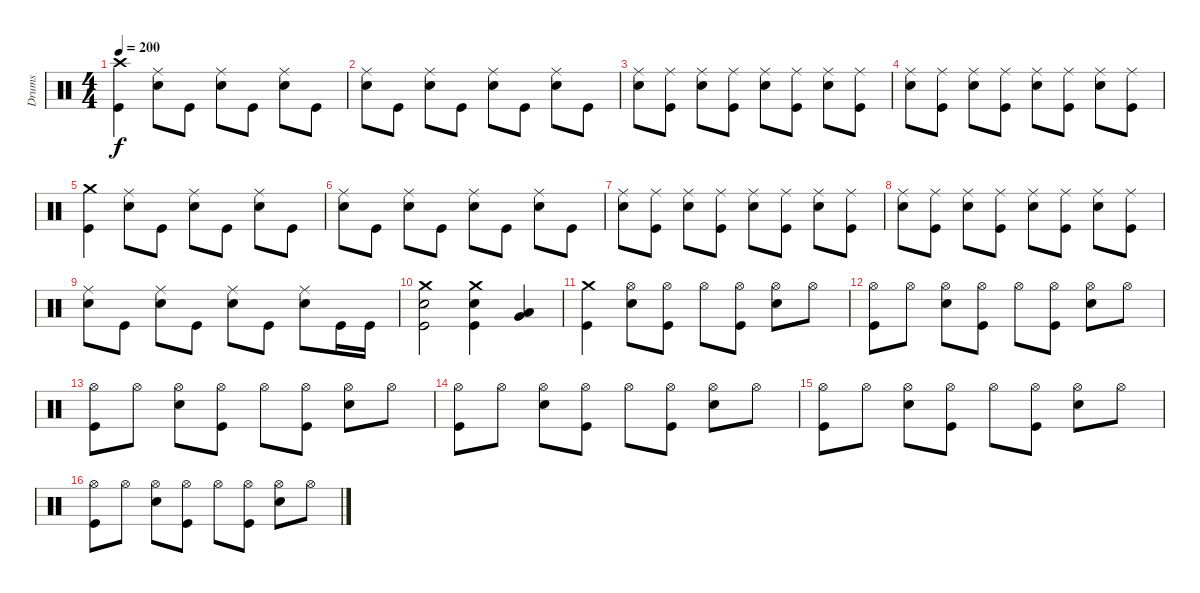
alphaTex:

\track ("Drums" "Drums") {instrument percussion}
\staff {score}
\articulation defaults
\ts (4 4)
\tempo 200
\clef neutral
\ks c
("Crash high (hit)" "Kick (hit)").4{dy f} ("Ride (middle)" "Snare (hit) 2").8 "Kick (hit)".8 ("Ride (middle)" "Snare (hit) 2").8 "Kick (hit)".8 ("Ride (middle)" "Snare (hit) 2").8 "Kick (hit)".8 |
("Ride (middle)" "Snare (hit) 2").8 "Kick (hit)".8 ("Ride (middle)" "Snare (hit) 2").8 "Kick (hit)".8 ("Ride (middle)" "Snare (hit) 2").8 "Kick (hit)".8 ("Ride (middle)" "Snare (hit) 2").8 "Kick (hit)".8 |
("Ride (middle)" "Snare (hit) 2").8 ("Ride (middle)" "Kick (hit)").8 ("Ride (middle)" "Snare (hit) 2").8 ("Ride (middle)" "Kick (hit)").8 ("Ride (middle)" "Snare (hit) 2").8 ("Ride (middle)" "Kick (hit)").8 ("Ride (middle)" "Snare (hit) 2").8 ("Ride (middle)" "Kick (hit)").8 |
("Ride (middle)" "Snare (hit) 2").8 ("Ride (middle)" "Kick (hit)").8 ("Ride (middle)" "Snare (hit) 2").8 ("Ride (middle)" "Kick (hit)").8 ("Ride (middle)" "Snare (hit) 2").8 ("Ride (middle)" "Kick (hit)").8 ("Ride (middle)" "Snare (hit) 2").8 ("Ride (middle)" "Kick (hit)").8 |
("Crash medium (hit)" "Kick (hit)").4 ("Ride (middle)" "Snare (hit) 2").8 "Kick (hit)".8 ("Ride (middle)" "Snare (hit) 2").8 "Kick (hit)".8 ("Ride (middle)" "Snare (hit) 2").8 "Kick (hit)".8 |
("Ride (middle)" "Snare (hit) 2").8 "Kick (hit)".8 ("Ride (middle)" "Snare (hit) 2").8 "Kick (hit)".8 ("Ride (middle)" "Snare (hit) 2").8 "Kick (hit)".8 ("Ride (middle)" "Snare (hit) 2").8 "Kick (hit)".8 |
("Ride (middle)" "Snare (hit) 2").8 ("Ride (middle)" "Kick (hit)").8 ("Ride (middle)" "Snare (hit) 2").8 ("Ride (middle)" "Kick (hit)").8 ("Ride (middle)" "Snare (hit) 2").8 ("Ride (middle)" "Kick (hit)").8 ("Ride (middle)" "Snare (hit) 2").8 ("Ride (middle)" "Kick (hit)").8 |
("Ride (middle)" "Snare (hit) 2").8 ("Ride (middle)" "Kick (hit)").8 ("Ride (middle)" "Snare (hit) 2").8 ("Ride (middle)" "Kick (hit)").8 ("Ride (middle)" "Snare (hit) 2").8 ("Ride (middle)" "Kick (hit)").8 ("Ride (middle)" "Snare (hit) 2").8 ("Ride (middle)" "Kick (hit)").8 |
("Ride (middle)" "Snare (hit) 2").8 "Kick (hit)".8 ("Ride (middle)" "Snare (hit) 2").8 "Kick (hit)".8 ("Ride (middle)" "Snare (hit) 2").8 "Kick (hit)".8 ("Ride (middle)" "Snare (hit) 2").8 "Kick (hit)".16 "Kick (hit)".16 |
("Crash medium (hit)" "Snare (hit) 2" "Kick (hit)").2 ("Crash medium (hit)" "Snare (hit) 2" "Kick (hit)").4 ("Very Low Tom (hit)" "Low Floor Tom (hit)").4 |
("Crash medium (hit)" "Kick (hit)").4 ("Hi-Hat (open)" "Snare (hit) 2").8 ("Hi-Hat (open)" "Kick (hit)").8 "Hi-Hat (open)".8 ("Hi-Hat (open)" "Kick (hit)").8 ("Hi-Hat (open)" "Snare (hit) 2").8 "Hi-Hat (open)".8 |
("Hi-Hat (open)" "Kick (hit)").8 "Hi-Hat (open)".8 ("Hi-Hat (open)" "Snare (hit) 2").8 ("Hi-Hat (open)" "Kick (hit)").8 "Hi-Hat (open)".8 ("Hi-Hat (open)" "Kick (hit)").8 ("Hi-Hat (open)" "Snare (hit) 2").8 "Hi-Hat (open)".8 |
("Hi-Hat (open)" "Kick (hit)").8 "Hi-Hat (open)".8 ("Hi-Hat (open)" "Snare (hit) 2").8 ("Hi-Hat (open)" "Kick (hit)").8 "Hi-Hat (open)".8 ("Hi-Hat (open)" "Kick (hit)").8 ("Hi-Hat (open)" "Snare (hit) 2").8 "Hi-Hat (open)".8 |
("Hi-Hat (open)" "Kick (hit)").8 "Hi-Hat (open)".8 ("Hi-Hat (open)" "Snare (hit) 2").8 ("Hi-Hat (open)" "Kick (hit)").8 "Hi-Hat (open)".8 ("Hi-Hat (open)" "Kick (hit)").8 ("Hi-Hat (open)" "Snare (hit) 2").8 "Hi-Hat (open)".8 |
("Hi-Hat (open)" "Kick (hit)").8 "Hi-Hat (open)".8 ("Hi-Hat (open)" "Snare (hit) 2").8 ("Hi-Hat (open)" "Kick (hit)").8 "Hi-Hat (open)".8 ("Hi-Hat (open)" "Kick (hit)").8 ("Hi-Hat (open)" "Snare (hit) 2").8 "Hi-Hat (open)".8 |
("Hi-Hat (open)" "Kick (hit)").8 "Hi-Hat (open)".8 ("Hi-Hat (open)" "Snare (hit) 2").8 ("Hi-Hat (open)" "Kick (hit)").8 "Hi-Hat (open)".8 ("Hi-Hat (open)" "Kick (hit)").8 ("Hi-Hat (open)" "Snare (hit) 2").8 "Hi-Hat (open)".8
